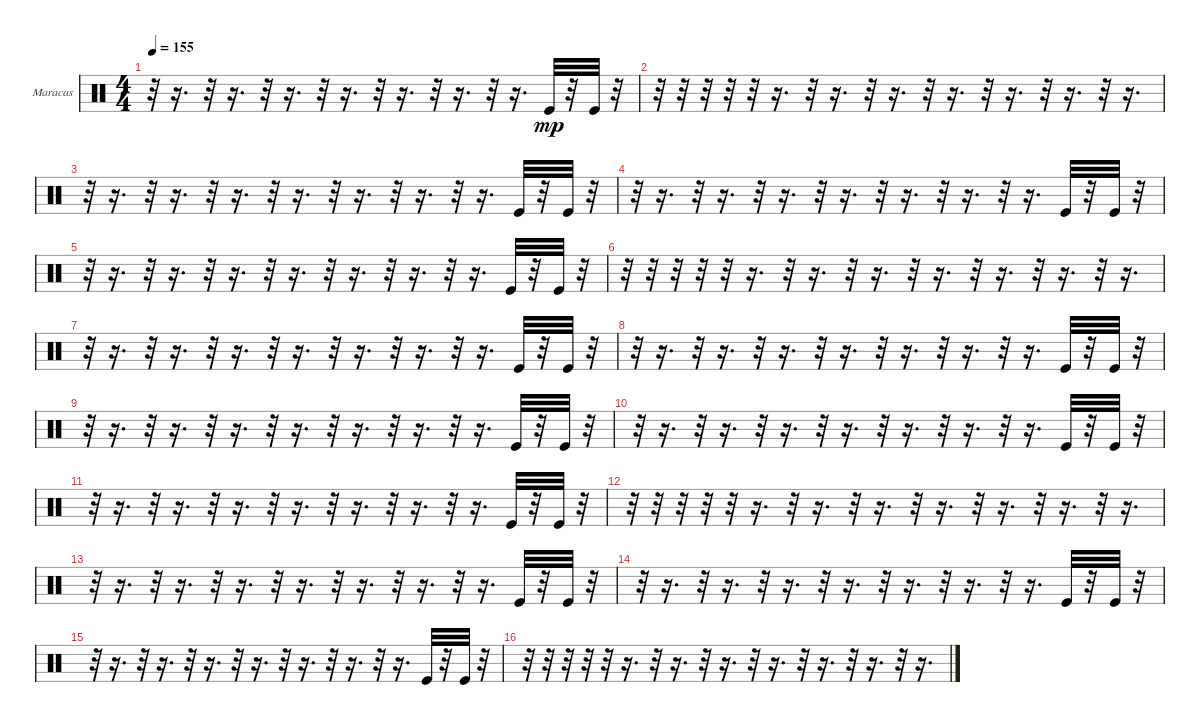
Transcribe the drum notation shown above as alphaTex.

\bracketExtendMode groupsimilarinstruments
\firstSystemTrackNameOrientation horizontal
\otherSystemsTrackNameOrientation horizontal
\track ("Е. Кулаков" "Maracas") {instrument percussion}
\staff {score}
\articulation defaults
\ts (4 4)
\tempo 155
\clef neutral
\ks c
r.32{dy mp} r.16{d} r.32 r.16{d} r.32 r.16{d} r.32 r.16{d} r.32 r.16{d} r.32 r.16{d} r.32 r.16{d} "Kick (hit)".32 r.32 "Kick (hit)".32 r.32 |
r.32 r.32 r.32 r.32 r.32 r.16{d} r.32 r.16{d} r.32 r.16{d} r.32 r.16{d} r.32 r.16{d} r.32 r.16{d} r.32 r.16{d} |
r.32 r.16{d} r.32 r.16{d} r.32 r.16{d} r.32 r.16{d} r.32 r.16{d} r.32 r.16{d} r.32 r.16{d} "Kick (hit)".32 r.32 "Kick (hit)".32 r.32 |
r.32 r.16{d} r.32 r.16{d} r.32 r.16{d} r.32 r.16{d} r.32 r.16{d} r.32 r.16{d} r.32 r.16{d} "Kick (hit)".32 r.32 "Kick (hit)".32 r.32 |
r.32 r.16{d} r.32 r.16{d} r.32 r.16{d} r.32 r.16{d} r.32 r.16{d} r.32 r.16{d} r.32 r.16{d} "Kick (hit)".32 r.32 "Kick (hit)".32 r.32 |
r.32 r.32 r.32 r.32 r.32 r.16{d} r.32 r.16{d} r.32 r.16{d} r.32 r.16{d} r.32 r.16{d} r.32 r.16{d} r.32 r.16{d} |
r.32 r.16{d} r.32 r.16{d} r.32 r.16{d} r.32 r.16{d} r.32 r.16{d} r.32 r.16{d} r.32 r.16{d} "Kick (hit)".32 r.32 "Kick (hit)".32 r.32 |
r.32 r.16{d} r.32 r.16{d} r.32 r.16{d} r.32 r.16{d} r.32 r.16{d} r.32 r.16{d} r.32 r.16{d} "Kick (hit)".32 r.32 "Kick (hit)".32 r.32 |
r.32 r.16{d} r.32 r.16{d} r.32 r.16{d} r.32 r.16{d} r.32 r.16{d} r.32 r.16{d} r.32 r.16{d} "Kick (hit)".32 r.32 "Kick (hit)".32 r.32 |
r.32 r.16{d} r.32 r.16{d} r.32 r.16{d} r.32 r.16{d} r.32 r.16{d} r.32 r.16{d} r.32 r.16{d} "Kick (hit)".32 r.32 "Kick (hit)".32 r.32 |
r.32 r.16{d} r.32 r.16{d} r.32 r.16{d} r.32 r.16{d} r.32 r.16{d} r.32 r.16{d} r.32 r.16{d} "Kick (hit)".32 r.32 "Kick (hit)".32 r.32 |
r.32 r.32 r.32 r.32 r.32 r.16{d} r.32 r.16{d} r.32 r.16{d} r.32 r.16{d} r.32 r.16{d} r.32 r.16{d} r.32 r.16{d} |
r.32 r.16{d} r.32 r.16{d} r.32 r.16{d} r.32 r.16{d} r.32 r.16{d} r.32 r.16{d} r.32 r.16{d} "Kick (hit)".32 r.32 "Kick (hit)".32 r.32 |
r.32 r.16{d} r.32 r.16{d} r.32 r.16{d} r.32 r.16{d} r.32 r.16{d} r.32 r.16{d} r.32 r.16{d} "Kick (hit)".32 r.32 "Kick (hit)".32 r.32 |
r.32 r.16{d} r.32 r.16{d} r.32 r.16{d} r.32 r.16{d} r.32 r.16{d} r.32 r.16{d} r.32 r.16{d} "Kick (hit)".32 r.32 "Kick (hit)".32 r.32 |
r.32 r.32 r.32 r.32 r.32 r.16{d} r.32 r.16{d} r.32 r.16{d} r.32 r.16{d} r.32 r.16{d} r.32 r.16{d} r.32 r.16{d}
